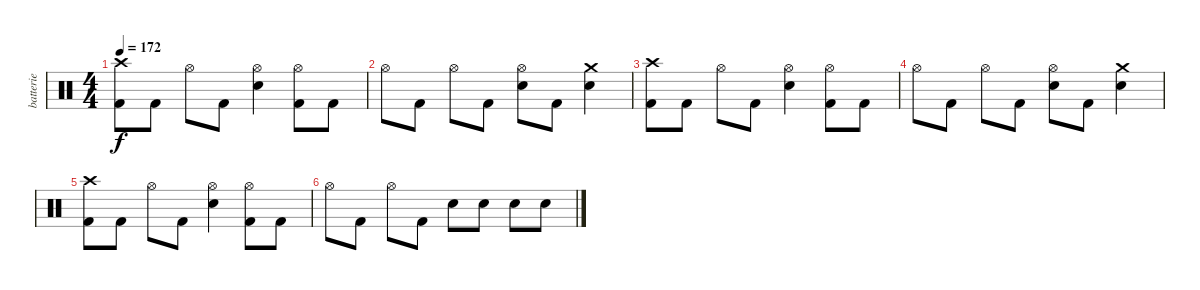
\track ("batterie" "batterie") {instrument percussion}
\staff {score}
\articulation defaults
\ts (4 4)
\tempo 172
\clef neutral
\ks c
("Crash high (hit)" "Kick (hit) 2").8{dy f} "Kick (hit) 2".8 "Hi-Hat (open)".8 "Kick (hit) 2".8 ("Hi-Hat (open)" "Electric Snare (hit)").4 ("Hi-Hat (open)" "Kick (hit) 2").8 "Kick (hit) 2".8 |
"Hi-Hat (open)".8 "Kick (hit) 2".8 "Hi-Hat (open)".8 "Kick (hit) 2".8 ("Hi-Hat (open)" "Electric Snare (hit)").8 "Kick (hit) 2".8 ("Electric Snare (hit)" "Crash medium (hit)").4 |
("Crash high (hit)" "Kick (hit) 2").8 "Kick (hit) 2".8 "Hi-Hat (open)".8 "Kick (hit) 2".8 ("Hi-Hat (open)" "Electric Snare (hit)").4 ("Hi-Hat (open)" "Kick (hit) 2").8 "Kick (hit) 2".8 |
"Hi-Hat (open)".8 "Kick (hit) 2".8 "Hi-Hat (open)".8 "Kick (hit) 2".8 ("Hi-Hat (open)" "Electric Snare (hit)").8 "Kick (hit) 2".8 ("Electric Snare (hit)" "Crash medium (hit)").4 |
("Crash high (hit)" "Kick (hit) 2").8 "Kick (hit) 2".8 "Hi-Hat (open)".8 "Kick (hit) 2".8 ("Hi-Hat (open)" "Electric Snare (hit)").4 ("Hi-Hat (open)" "Kick (hit) 2").8 "Kick (hit) 2".8 |
"Hi-Hat (open)".8 "Kick (hit) 2".8 "Hi-Hat (open)".8 "Kick (hit) 2".8 "Electric Snare (hit)".8 "Electric Snare (hit)".8 "Electric Snare (hit)".8 "Electric Snare (hit)".8
